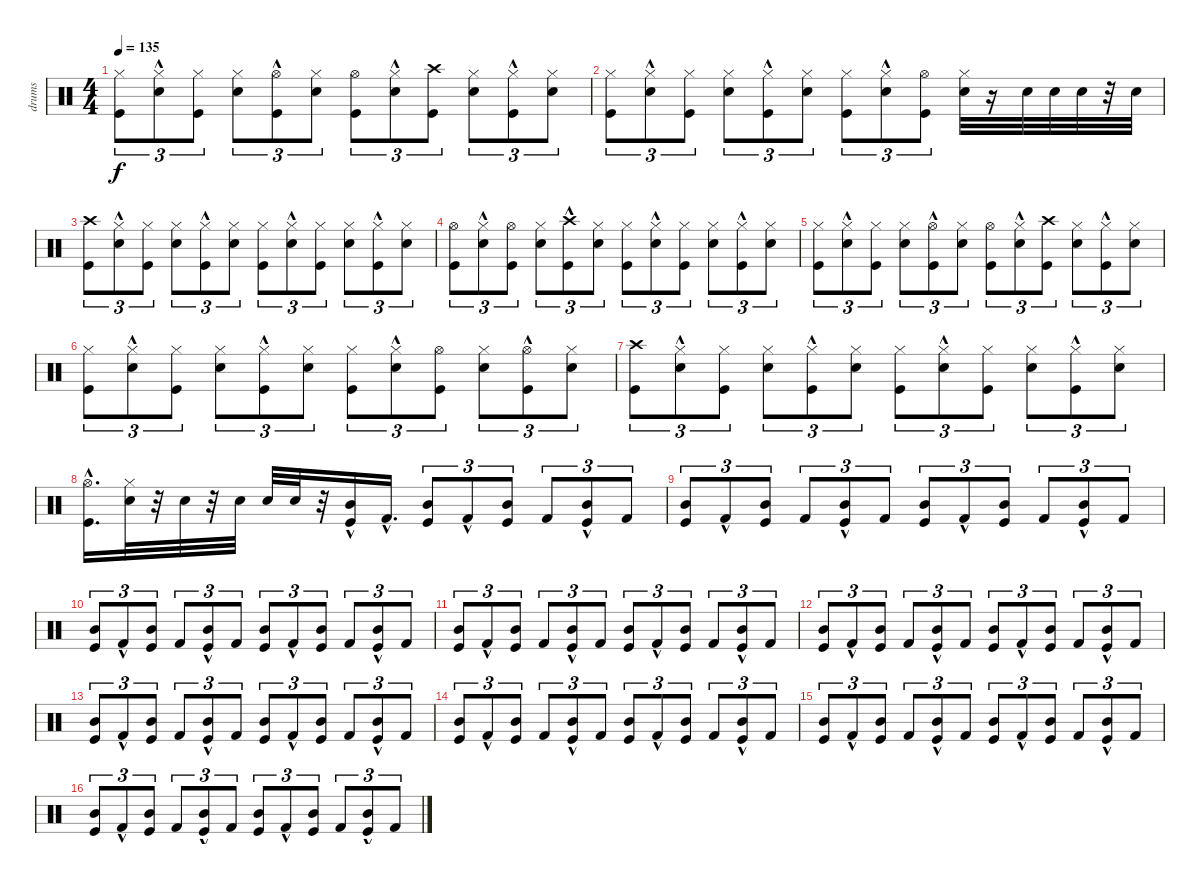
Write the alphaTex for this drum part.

\track ("drums" "drums") {instrument percussion}
\staff {score}
\articulation defaults
\ts (4 4)
\tempo 135
\clef neutral
\ks c
("Hi-Hat (closed)" "Kick (hit)").8{tu (3 2) dy f} ("Snare (hit) 2"{hac} "Hi-Hat (closed)").8{tu (3 2)} ("Hi-Hat (closed)" "Kick (hit)").8{tu (3 2)} ("Hi-Hat (closed)" "Snare (hit) 2").8{tu (3 2)} ("Hi-Hat (open)" "Kick (hit)"{hac}).8{tu (3 2)} ("Hi-Hat (closed)" "Snare (hit) 2").8{tu (3 2)} ("Hi-Hat (open)" "Kick (hit)").8{tu (3 2)} ("Hi-Hat (closed)" "Snare (hit) 2"{hac}).8{tu (3 2)} ("Kick (hit)" "Crash high (hit)").8{tu (3 2)} ("Hi-Hat (closed)" "Snare (hit) 2").8{tu (3 2)} ("Hi-Hat (closed)" "Kick (hit)"{hac}).8{tu (3 2)} ("Snare (hit) 2" "Hi-Hat (closed)").8{tu (3 2)} |
("Hi-Hat (closed)" "Kick (hit)").8{tu (3 2)} ("Hi-Hat (closed)" "Snare (hit) 2"{hac}).8{tu (3 2)} ("Kick (hit)" "Hi-Hat (closed)").8{tu (3 2)} ("Hi-Hat (closed)" "Snare (hit) 2").8{tu (3 2)} ("Hi-Hat (closed)" "Kick (hit)"{hac}).8{tu (3 2)} ("Snare (hit) 2" "Hi-Hat (closed)").8{tu (3 2)} ("Hi-Hat (closed)" "Kick (hit)").8{tu (3 2)} ("Hi-Hat (closed)" "Snare (hit) 2"{hac}).8{tu (3 2)} ("Hi-Hat (open)" "Kick (hit)").8{tu (3 2)} ("Hi-Hat (closed)" "Snare (hit) 2").32 r.16 "Snare (hit) 2".32 "Snare (hit) 2".32 "Snare (hit) 2".32 r.32 "Snare (hit) 2".32 |
("Kick (hit)" "Crash high (hit)").8{tu (3 2)} ("Hi-Hat (closed)" "Snare (hit) 2"{hac}).8{tu (3 2)} ("Hi-Hat (closed)" "Kick (hit)").8{tu (3 2)} ("Snare (hit) 2" "Hi-Hat (closed)").8{tu (3 2)} ("Hi-Hat (closed)" "Kick (hit)"{hac}).8{tu (3 2)} ("Hi-Hat (closed)" "Snare (hit) 2").8{tu (3 2)} ("Kick (hit)" "Hi-Hat (closed)").8{tu (3 2)} ("Hi-Hat (closed)" "Snare (hit) 2"{hac}).8{tu (3 2)} ("Hi-Hat (closed)" "Kick (hit)").8{tu (3 2)} ("Snare (hit) 2" "Hi-Hat (closed)").8{tu (3 2)} ("Hi-Hat (closed)" "Kick (hit)"{hac}).8{tu (3 2)} ("Hi-Hat (closed)" "Snare (hit) 2").8{tu (3 2)} |
("Hi-Hat (open)" "Kick (hit)").8{tu (3 2)} ("Hi-Hat (closed)" "Snare (hit) 2"{hac}).8{tu (3 2)} ("Hi-Hat (open)" "Kick (hit)").8{tu (3 2)} ("Hi-Hat (closed)" "Snare (hit) 2").8{tu (3 2)} ("Kick (hit)"{hac} "Crash high (hit)"{hac}).8{tu (3 2)} ("Hi-Hat (closed)" "Snare (hit) 2").8{tu (3 2)} ("Hi-Hat (closed)" "Kick (hit)").8{tu (3 2)} ("Snare (hit) 2"{hac} "Hi-Hat (closed)").8{tu (3 2)} ("Hi-Hat (closed)" "Kick (hit)").8{tu (3 2)} ("Hi-Hat (closed)" "Snare (hit) 2").8{tu (3 2)} ("Kick (hit)"{hac} "Hi-Hat (closed)").8{tu (3 2)} ("Hi-Hat (closed)" "Snare (hit) 2").8{tu (3 2)} |
("Hi-Hat (closed)" "Kick (hit)").8{tu (3 2)} ("Snare (hit) 2"{hac} "Hi-Hat (closed)").8{tu (3 2)} ("Hi-Hat (closed)" "Kick (hit)").8{tu (3 2)} ("Hi-Hat (closed)" "Snare (hit) 2").8{tu (3 2)} ("Hi-Hat (open)" "Kick (hit)"{hac}).8{tu (3 2)} ("Hi-Hat (closed)" "Snare (hit) 2").8{tu (3 2)} ("Hi-Hat (open)" "Kick (hit)").8{tu (3 2)} ("Hi-Hat (closed)" "Snare (hit) 2"{hac}).8{tu (3 2)} ("Kick (hit)" "Crash high (hit)").8{tu (3 2)} ("Hi-Hat (closed)" "Snare (hit) 2").8{tu (3 2)} ("Hi-Hat (closed)" "Kick (hit)"{hac}).8{tu (3 2)} ("Snare (hit) 2" "Hi-Hat (closed)").8{tu (3 2)} |
("Hi-Hat (closed)" "Kick (hit)").8{tu (3 2)} ("Hi-Hat (closed)" "Snare (hit) 2"{hac}).8{tu (3 2)} ("Kick (hit)" "Hi-Hat (closed)").8{tu (3 2)} ("Hi-Hat (closed)" "Snare (hit) 2").8{tu (3 2)} ("Hi-Hat (closed)" "Kick (hit)"{hac}).8{tu (3 2)} ("Snare (hit) 2" "Hi-Hat (closed)").8{tu (3 2)} ("Hi-Hat (closed)" "Kick (hit)").8{tu (3 2)} ("Hi-Hat (closed)" "Snare (hit) 2"{hac}).8{tu (3 2)} ("Hi-Hat (open)" "Kick (hit)").8{tu (3 2)} ("Hi-Hat (closed)" "Snare (hit) 2").8{tu (3 2)} ("Hi-Hat (open)" "Kick (hit)"{hac}).8{tu (3 2)} ("Hi-Hat (closed)" "Snare (hit) 2").8{tu (3 2)} |
("Kick (hit)" "Crash high (hit)").8{tu (3 2)} ("Hi-Hat (closed)" "Snare (hit) 2"{hac}).8{tu (3 2)} ("Hi-Hat (closed)" "Kick (hit)").8{tu (3 2)} ("Snare (hit) 2" "Hi-Hat (closed)").8{tu (3 2)} ("Hi-Hat (closed)" "Kick (hit)"{hac}).8{tu (3 2)} ("Hi-Hat (closed)" "Snare (hit) 2").8{tu (3 2)} ("Kick (hit)" "Hi-Hat (closed)").8{tu (3 2)} ("Hi-Hat (closed)" "Snare (hit) 2"{hac}).8{tu (3 2)} ("Hi-Hat (closed)" "Kick (hit)").8{tu (3 2)} ("Snare (hit) 2" "Hi-Hat (closed)").8{tu (3 2)} ("Hi-Hat (closed)" "Kick (hit)"{hac}).8{tu (3 2)} ("Hi-Hat (closed)" "Snare (hit) 2").8{tu (3 2)} |
("Hi-Hat (open)" "Kick (hit)"{hac}).16{d} ("Hi-Hat (closed)" "Snare (hit) 2").32 r.32 "Snare (hit) 2".32 r.32 "Snare (hit) 2".32 "Snare (hit) 2".32 "Snare (hit) 2".32 r.32 ("Kick (hit)"{hac} "Mid Tom (hit)"{hac}).16 "Kick (hit) 2"{hac}.16{d} ("Kick (hit)" "Mid Tom (hit)").8{tu (3 2)} "Kick (hit) 2"{hac}.8{tu (3 2)} ("Kick (hit)" "Mid Tom (hit)").8{tu (3 2)} "Kick (hit) 2".8{tu (3 2)} ("Mid Tom (hit)"{hac} "Kick (hit)"{hac}).8{tu (3 2)} "Kick (hit) 2".8{tu (3 2)} |
("Mid Tom (hit)" "Kick (hit)").8{tu (3 2)} "Kick (hit) 2"{hac}.8{tu (3 2)} ("Mid Tom (hit)" "Kick (hit)").8{tu (3 2)} "Kick (hit) 2".8{tu (3 2)} ("Mid Tom (hit)"{hac} "Kick (hit)"{hac}).8{tu (3 2)} "Kick (hit) 2".8{tu (3 2)} ("Kick (hit)" "Mid Tom (hit)").8{tu (3 2)} "Kick (hit) 2"{hac}.8{tu (3 2)} ("Kick (hit)" "Mid Tom (hit)").8{tu (3 2)} "Kick (hit) 2".8{tu (3 2)} ("Kick (hit)"{hac} "Mid Tom (hit)"{hac}).8{tu (3 2)} "Kick (hit) 2".8{tu (3 2)} |
("Mid Tom (hit)" "Kick (hit)").8{tu (3 2)} "Kick (hit) 2"{hac}.8{tu (3 2)} ("Mid Tom (hit)" "Kick (hit)").8{tu (3 2)} "Kick (hit) 2".8{tu (3 2)} ("Mid Tom (hit)"{hac} "Kick (hit)"{hac}).8{tu (3 2)} "Kick (hit) 2".8{tu (3 2)} ("Kick (hit)" "Mid Tom (hit)").8{tu (3 2)} "Kick (hit) 2"{hac}.8{tu (3 2)} ("Mid Tom (hit)" "Kick (hit)").8{tu (3 2)} "Kick (hit) 2".8{tu (3 2)} ("Kick (hit)"{hac} "Mid Tom (hit)"{hac}).8{tu (3 2)} "Kick (hit) 2".8{tu (3 2)} |
("Kick (hit)" "Mid Tom (hit)").8{tu (3 2)} "Kick (hit) 2"{hac}.8{tu (3 2)} ("Kick (hit)" "Mid Tom (hit)").8{tu (3 2)} "Kick (hit) 2".8{tu (3 2)} ("Kick (hit)"{hac} "Mid Tom (hit)"{hac}).8{tu (3 2)} "Kick (hit) 2".8{tu (3 2)} ("Kick (hit)" "Mid Tom (hit)").8{tu (3 2)} "Kick (hit) 2"{hac}.8{tu (3 2)} ("Mid Tom (hit)" "Kick (hit)").8{tu (3 2)} "Kick (hit) 2".8{tu (3 2)} ("Mid Tom (hit)"{hac} "Kick (hit)"{hac}).8{tu (3 2)} "Kick (hit) 2".8{tu (3 2)} |
("Mid Tom (hit)" "Kick (hit)").8{tu (3 2)} "Kick (hit) 2"{hac}.8{tu (3 2)} ("Mid Tom (hit)" "Kick (hit)").8{tu (3 2)} "Kick (hit) 2".8{tu (3 2)} ("Kick (hit)"{hac} "Mid Tom (hit)"{hac}).8{tu (3 2)} "Kick (hit) 2".8{tu (3 2)} ("Kick (hit)" "Mid Tom (hit)").8{tu (3 2)} "Kick (hit) 2"{hac}.8{tu (3 2)} ("Kick (hit)" "Mid Tom (hit)").8{tu (3 2)} "Kick (hit) 2".8{tu (3 2)} ("Mid Tom (hit)"{hac} "Kick (hit)"{hac}).8{tu (3 2)} "Kick (hit) 2".8{tu (3 2)} |
("Mid Tom (hit)" "Kick (hit)").8{tu (3 2)} "Kick (hit) 2"{hac}.8{tu (3 2)} ("Mid Tom (hit)" "Kick (hit)").8{tu (3 2)} "Kick (hit) 2".8{tu (3 2)} ("Kick (hit)"{hac} "Mid Tom (hit)"{hac}).8{tu (3 2)} "Kick (hit) 2".8{tu (3 2)} ("Mid Tom (hit)" "Kick (hit)").8{tu (3 2)} "Kick (hit) 2"{hac}.8{tu (3 2)} ("Kick (hit)" "Mid Tom (hit)").8{tu (3 2)} "Kick (hit) 2".8{tu (3 2)} ("Kick (hit)"{hac} "Mid Tom (hit)"{hac}).8{tu (3 2)} "Kick (hit) 2".8{tu (3 2)} |
("Kick (hit)" "Mid Tom (hit)").8{tu (3 2)} "Kick (hit) 2"{hac}.8{tu (3 2)} ("Kick (hit)" "Mid Tom (hit)").8{tu (3 2)} "Kick (hit) 2".8{tu (3 2)} ("Kick (hit)"{hac} "Mid Tom (hit)"{hac}).8{tu (3 2)} "Kick (hit) 2".8{tu (3 2)} ("Mid Tom (hit)" "Kick (hit)").8{tu (3 2)} "Kick (hit) 2"{hac}.8{tu (3 2)} ("Mid Tom (hit)" "Kick (hit)").8{tu (3 2)} "Kick (hit) 2".8{tu (3 2)} ("Mid Tom (hit)"{hac} "Kick (hit)"{hac}).8{tu (3 2)} "Kick (hit) 2".8{tu (3 2)} |
("Mid Tom (hit)" "Kick (hit)").8{tu (3 2)} "Kick (hit) 2"{hac}.8{tu (3 2)} ("Kick (hit)" "Mid Tom (hit)").8{tu (3 2)} "Kick (hit) 2".8{tu (3 2)} ("Kick (hit)"{hac} "Mid Tom (hit)"{hac}).8{tu (3 2)} "Kick (hit) 2".8{tu (3 2)} ("Kick (hit)" "Mid Tom (hit)").8{tu (3 2)} "Kick (hit) 2"{hac}.8{tu (3 2)} ("Mid Tom (hit)" "Kick (hit)").8{tu (3 2)} "Kick (hit) 2".8{tu (3 2)} ("Mid Tom (hit)"{hac} "Kick (hit)"{hac}).8{tu (3 2)} "Kick (hit) 2".8{tu (3 2)} |
("Mid Tom (hit)" "Kick (hit)").8{tu (3 2)} "Kick (hit) 2"{hac}.8{tu (3 2)} ("Kick (hit)" "Mid Tom (hit)").8{tu (3 2)} "Kick (hit) 2".8{tu (3 2)} ("Mid Tom (hit)"{hac} "Kick (hit)"{hac}).8{tu (3 2)} "Kick (hit) 2".8{tu (3 2)} ("Kick (hit)" "Mid Tom (hit)").8{tu (3 2)} "Kick (hit) 2"{hac}.8{tu (3 2)} ("Kick (hit)" "Mid Tom (hit)").8{tu (3 2)} "Kick (hit) 2".8{tu (3 2)} ("Kick (hit)"{hac} "Mid Tom (hit)"{hac}).8{tu (3 2)} "Kick (hit) 2".8{tu (3 2)}
